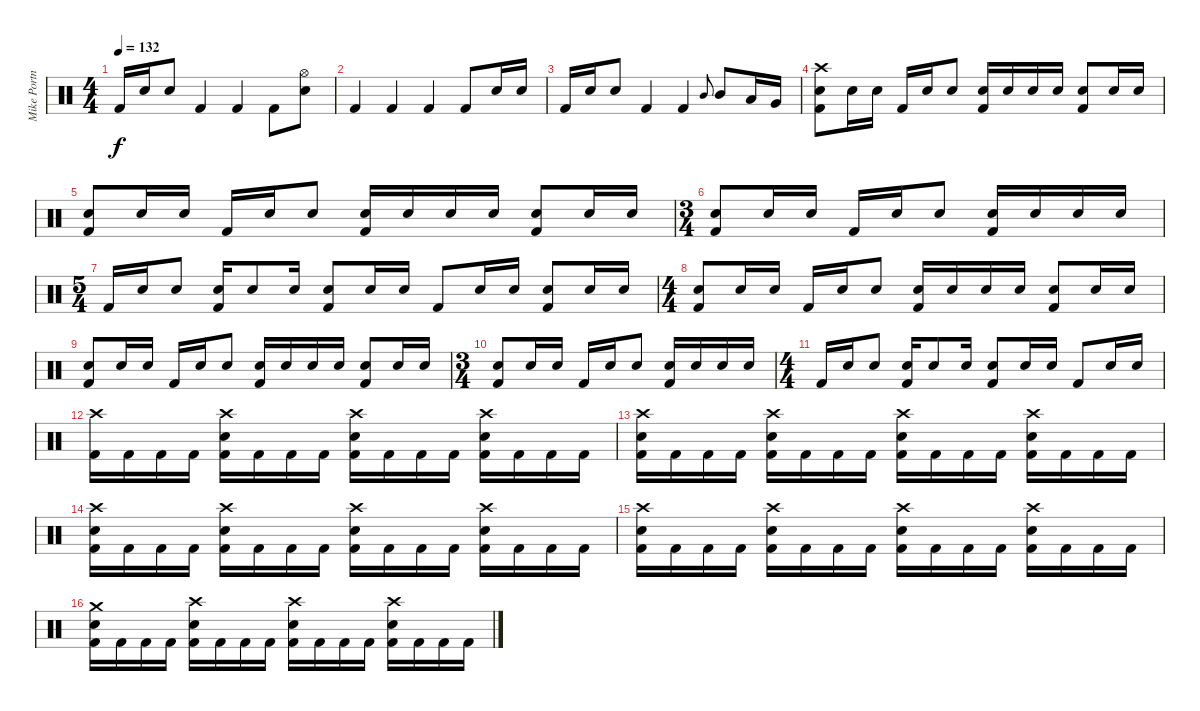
\track ("Mike Portnoy" "Mike Portn") {instrument percussion}
\staff {score}
\articulation defaults
\ts (4 4)
\tempo 132
\clef neutral
\ks c "Kick (hit) 2".16{dy f} "Snare (hit) 2".16 "Snare (hit) 2".8 "Kick (hit) 2".4 "Kick (hit) 2".4 "Kick (hit) 2".8
("Hi-Hat (open)" "Snare (hit) 2").8 |
"Kick (hit) 2".4 "Kick (hit) 2".4 "Kick (hit) 2".4 "Kick (hit) 2".8 "Snare (hit) 2".16 "Snare (hit) 2".16 |
"Kick (hit) 2".16 "Snare (hit) 2".16 "Snare (hit) 2".8 "Kick (hit) 2".4 "Kick (hit) 2".4 "Mid Tom (hit)".8{gr onbeat} "Mid Tom (hit)".8 "Low Tom (hit)".16 "Very Low Tom (hit)".16 |
("Crash high (hit)" "Snare (hit) 2" "Kick (hit) 2").8 "Snare (hit) 2".16 "Snare (hit) 2".16 "Kick (hit) 2".16 "Snare (hit) 2".16 "Snare (hit) 2".8 ("Snare (hit) 2" "Kick (hit) 2").16 "Snare (hit) 2".16 "Snare (hit) 2".16 "Snare (hit) 2".16 ("Snare (hit) 2" "Kick (hit) 2").8 "Snare (hit) 2".16 "Snare (hit) 2".16 |
("Snare (hit) 2" "Kick (hit) 2").8 "Snare (hit) 2".16 "Snare (hit) 2".16 "Kick (hit) 2".16 "Snare (hit) 2".16 "Snare (hit) 2".8 ("Snare (hit) 2" "Kick (hit) 2").16 "Snare (hit) 2".16 "Snare (hit) 2".16 "Snare (hit) 2".16 ("Snare (hit) 2" "Kick (hit) 2").8 "Snare (hit) 2".16 "Snare (hit) 2".16 |
\ts (3 4)
("Snare (hit) 2" "Kick (hit) 2").8 "Snare (hit) 2".16 "Snare (hit) 2".16 "Kick (hit) 2".16 "Snare (hit) 2".16 "Snare (hit) 2".8 ("Snare (hit) 2" "Kick (hit) 2").16 "Snare (hit) 2".16 "Snare (hit) 2".16 "Snare (hit) 2".16 |
\ts (5 4)
"Kick (hit) 2".16 "Snare (hit) 2".16 "Snare (hit) 2".8 ("Snare (hit) 2" "Kick (hit) 2").16 "Snare (hit) 2".8 "Snare (hit) 2".16 ("Snare (hit) 2" "Kick (hit) 2").8 "Snare (hit) 2".16 "Snare (hit) 2".16 "Kick (hit) 2".8 "Snare (hit) 2".16 "Snare (hit) 2".16 ("Snare (hit) 2" "Kick (hit) 2").8 "Snare (hit) 2".16 "Snare (hit) 2".16 |
\ts (4 4)
("Snare (hit) 2" "Kick (hit) 2").8 "Snare (hit) 2".16 "Snare (hit) 2".16 "Kick (hit) 2".16 "Snare (hit) 2".16 "Snare (hit) 2".8 ("Snare (hit) 2" "Kick (hit) 2").16 "Snare (hit) 2".16 "Snare (hit) 2".16 "Snare (hit) 2".16 ("Snare (hit) 2" "Kick (hit) 2").8 "Snare (hit) 2".16 "Snare (hit) 2".16 |
("Snare (hit) 2" "Kick (hit) 2").8 "Snare (hit) 2".16 "Snare (hit) 2".16 "Kick (hit) 2".16 "Snare (hit) 2".16 "Snare (hit) 2".8 ("Snare (hit) 2" "Kick (hit) 2").16 "Snare (hit) 2".16 "Snare (hit) 2".16 "Snare (hit) 2".16 ("Snare (hit) 2" "Kick (hit) 2").8 "Snare (hit) 2".16 "Snare (hit) 2".16 |
\ts (3 4)
("Snare (hit) 2" "Kick (hit) 2").8 "Snare (hit) 2".16 "Snare (hit) 2".16 "Kick (hit) 2".16 "Snare (hit) 2".16 "Snare (hit) 2".8 ("Snare (hit) 2" "Kick (hit) 2").16 "Snare (hit) 2".16 "Snare (hit) 2".16 "Snare (hit) 2".16 |
\ts (4 4)
"Kick (hit) 2".16 "Snare (hit) 2".16 "Snare (hit) 2".8 ("Snare (hit) 2" "Kick (hit) 2").16 "Snare (hit) 2".8 "Snare (hit) 2".16 ("Snare (hit) 2" "Kick (hit) 2").8 "Snare (hit) 2".16 "Snare (hit) 2".16 "Kick (hit) 2".8 "Snare (hit) 2".16 "Snare (hit) 2".16 |
("Crash high (hit)" "Kick (hit) 2").16 "Kick (hit) 2".16 "Kick (hit) 2".16 "Kick (hit) 2".16 ("Crash high (hit)" "Snare (hit) 2" "Kick (hit) 2").16 "Kick (hit) 2".16 "Kick (hit) 2".16 "Kick (hit) 2".16 ("Crash high (hit)" "Snare (hit) 2" "Kick (hit) 2").16 "Kick (hit) 2".16 "Kick (hit) 2".16 "Kick (hit) 2".16 ("Crash high (hit)" "Snare (hit) 2" "Kick (hit) 2").16 "Kick (hit) 2".16 "Kick (hit) 2".16 "Kick (hit) 2".16 |
("Crash high (hit)" "Snare (hit) 2" "Kick (hit) 2").16 "Kick (hit) 2".16 "Kick (hit) 2".16 "Kick (hit) 2".16 ("Crash high (hit)" "Snare (hit) 2" "Kick (hit) 2").16 "Kick (hit) 2".16 "Kick (hit) 2".16 "Kick (hit) 2".16 ("Crash high (hit)" "Snare (hit) 2" "Kick (hit) 2").16 "Kick (hit) 2".16 "Kick (hit) 2".16 "Kick (hit) 2".16 ("Crash high (hit)" "Snare (hit) 2" "Kick (hit) 2").16 "Kick (hit) 2".16 "Kick (hit) 2".16 "Kick (hit) 2".16 |
("Crash high (hit)" "Snare (hit) 2" "Kick (hit) 2").16 "Kick (hit) 2".16 "Kick (hit) 2".16 "Kick (hit) 2".16 ("Crash high (hit)" "Snare (hit) 2" "Kick (hit) 2").16 "Kick (hit) 2".16 "Kick (hit) 2".16 "Kick (hit) 2".16 ("Crash high (hit)" "Snare (hit) 2" "Kick (hit) 2").16 "Kick (hit) 2".16 "Kick (hit) 2".16 "Kick (hit) 2".16 ("Crash high (hit)" "Snare (hit) 2" "Kick (hit) 2").16 "Kick (hit) 2".16 "Kick (hit) 2".16 "Kick (hit) 2".16 |
("Crash high (hit)" "Snare (hit) 2" "Kick (hit) 2").16 "Kick (hit) 2".16 "Kick (hit) 2".16 "Kick (hit) 2".16 ("Crash high (hit)" "Snare (hit) 2" "Kick (hit) 2").16 "Kick (hit) 2".16 "Kick (hit) 2".16 "Kick (hit) 2".16 ("Crash high (hit)" "Snare (hit) 2" "Kick (hit) 2").16 "Kick (hit) 2".16 "Kick (hit) 2".16 "Kick (hit) 2".16 ("Crash high (hit)" "Snare (hit) 2" "Kick (hit) 2").16 "Kick (hit) 2".16 "Kick (hit) 2".16 "Kick (hit) 2".16 |
("Crash medium (hit)" "Snare (hit) 2" "Kick (hit) 2").16 "Kick (hit) 2".16 "Kick (hit) 2".16 "Kick (hit) 2".16 ("Crash high (hit)" "Snare (hit) 2" "Kick (hit) 2").16 "Kick (hit) 2".16 "Kick (hit) 2".16 "Kick (hit) 2".16 ("Crash high (hit)" "Snare (hit) 2" "Kick (hit) 2").16 "Kick (hit) 2".16 "Kick (hit) 2".16 "Kick (hit) 2".16 ("Crash high (hit)" "Snare (hit) 2" "Kick (hit) 2").16 "Kick (hit) 2".16 "Kick (hit) 2".16 "Kick (hit) 2".16
